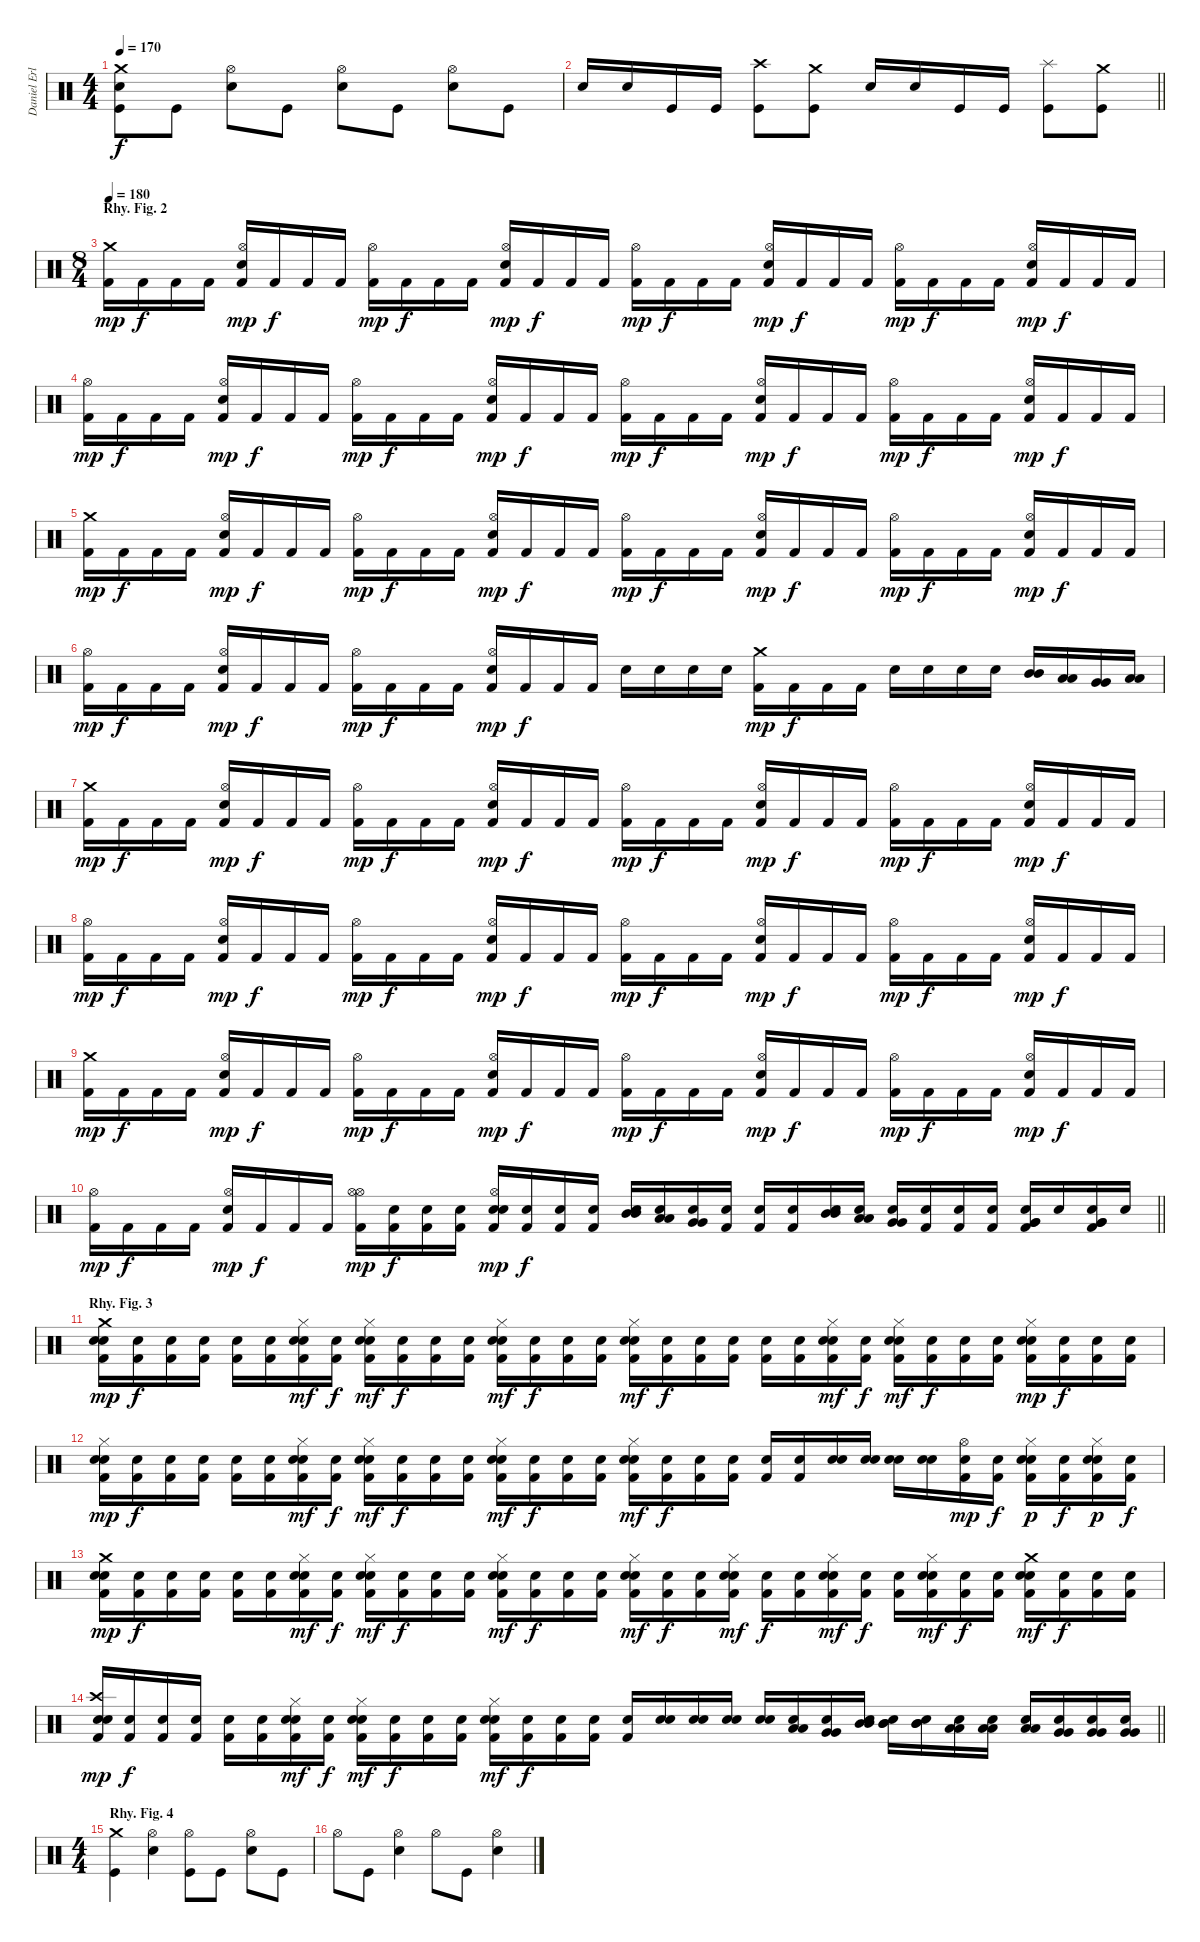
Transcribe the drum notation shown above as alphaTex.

\track ("Daniel Erlandson" "Daniel Erl") {instrument percussion}
\staff {score}
\articulation defaults
\ts (4 4)
\tempo 170
\clef neutral
\ks c
("Crash medium (hit)" "Electric Snare (hit)" "Kick (hit)").8{dy f} "Kick (hit)".8 ("Hi-Hat (open)" "Electric Snare (hit)").8 "Kick (hit)".8 ("Hi-Hat (open)" "Electric Snare (hit)").8 "Kick (hit)".8 ("Hi-Hat (open)" "Electric Snare (hit)").8 "Kick (hit)".8 |
\barLineRight lightlight "Electric Snare (hit)".16 "Electric Snare (hit)".16 "Kick (hit)".16 "Kick (hit)".16
("Crash high (hit)" "Kick (hit)").8 ("Crash medium (hit)" "Kick (hit)").8 "Electric Snare (hit)".16 "Electric Snare (hit)".16 "Kick (hit)".16 "Kick (hit)".16 ("Splash (hit)" "Kick (hit)").8 ("Crash medium (hit)" "Kick (hit)").8 |
\ts (8 4)
\section ("" "Rhy. Fig. 2")
\tempo 180
("Crash medium (hit)" "Kick (hit) 2").16{dy mp} "Kick (hit) 2".16{dy f} "Kick (hit) 2".16 "Kick (hit) 2".16 ("Hi-Hat (open)" "Electric Snare (hit)" "Kick (hit) 2").16{dy mp} "Kick (hit) 2".16{dy f} "Kick (hit) 2".16 "Kick (hit) 2".16 ("Hi-Hat (open)" "Kick (hit) 2").16{dy mp} "Kick (hit) 2".16{dy f} "Kick (hit) 2".16 "Kick (hit) 2".16 ("Hi-Hat (open)" "Electric Snare (hit)" "Kick (hit) 2").16{dy mp} "Kick (hit) 2".16{dy f} "Kick (hit) 2".16 "Kick (hit) 2".16 ("Hi-Hat (open)" "Kick (hit) 2").16{dy mp} "Kick (hit) 2".16{dy f} "Kick (hit) 2".16 "Kick (hit) 2".16 ("Hi-Hat (open)" "Electric Snare (hit)" "Kick (hit) 2").16{dy mp} "Kick (hit) 2".16{dy f} "Kick (hit) 2".16 "Kick (hit) 2".16 ("Hi-Hat (open)" "Kick (hit) 2").16{dy mp} "Kick (hit) 2".16{dy f} "Kick (hit) 2".16 "Kick (hit) 2".16 ("Hi-Hat (open)" "Electric Snare (hit)" "Kick (hit) 2").16{dy mp} "Kick (hit) 2".16{dy f} "Kick (hit) 2".16 "Kick (hit) 2".16 |
("Hi-Hat (open)" "Kick (hit) 2").16{dy mp} "Kick (hit) 2".16{dy f} "Kick (hit) 2".16 "Kick (hit) 2".16 ("Hi-Hat (open)" "Electric Snare (hit)" "Kick (hit) 2").16{dy mp} "Kick (hit) 2".16{dy f} "Kick (hit) 2".16 "Kick (hit) 2".16 ("Hi-Hat (open)" "Kick (hit) 2").16{dy mp} "Kick (hit) 2".16{dy f} "Kick (hit) 2".16 "Kick (hit) 2".16 ("Hi-Hat (open)" "Electric Snare (hit)" "Kick (hit) 2").16{dy mp} "Kick (hit) 2".16{dy f} "Kick (hit) 2".16 "Kick (hit) 2".16 ("Hi-Hat (open)" "Kick (hit) 2").16{dy mp} "Kick (hit) 2".16{dy f} "Kick (hit) 2".16 "Kick (hit) 2".16 ("Hi-Hat (open)" "Electric Snare (hit)" "Kick (hit) 2").16{dy mp} "Kick (hit) 2".16{dy f} "Kick (hit) 2".16 "Kick (hit) 2".16 ("Hi-Hat (open)" "Kick (hit) 2").16{dy mp} "Kick (hit) 2".16{dy f} "Kick (hit) 2".16 "Kick (hit) 2".16 ("Hi-Hat (open)" "Electric Snare (hit)" "Kick (hit) 2").16{dy mp} "Kick (hit) 2".16{dy f} "Kick (hit) 2".16 "Kick (hit) 2".16 |
("Crash medium (hit)" "Kick (hit) 2").16{dy mp} "Kick (hit) 2".16{dy f} "Kick (hit) 2".16 "Kick (hit) 2".16 ("Hi-Hat (open)" "Electric Snare (hit)" "Kick (hit) 2").16{dy mp} "Kick (hit) 2".16{dy f} "Kick (hit) 2".16 "Kick (hit) 2".16 ("Hi-Hat (open)" "Kick (hit) 2").16{dy mp} "Kick (hit) 2".16{dy f} "Kick (hit) 2".16 "Kick (hit) 2".16 ("Hi-Hat (open)" "Electric Snare (hit)" "Kick (hit) 2").16{dy mp} "Kick (hit) 2".16{dy f} "Kick (hit) 2".16 "Kick (hit) 2".16 ("Hi-Hat (open)" "Kick (hit) 2").16{dy mp} "Kick (hit) 2".16{dy f} "Kick (hit) 2".16 "Kick (hit) 2".16 ("Hi-Hat (open)" "Electric Snare (hit)" "Kick (hit) 2").16{dy mp} "Kick (hit) 2".16{dy f} "Kick (hit) 2".16 "Kick (hit) 2".16 ("Hi-Hat (open)" "Kick (hit) 2").16{dy mp} "Kick (hit) 2".16{dy f} "Kick (hit) 2".16 "Kick (hit) 2".16 ("Hi-Hat (open)" "Electric Snare (hit)" "Kick (hit) 2").16{dy mp} "Kick (hit) 2".16{dy f} "Kick (hit) 2".16 "Kick (hit) 2".16 |
("Hi-Hat (open)" "Kick (hit) 2").16{dy mp} "Kick (hit) 2".16{dy f} "Kick (hit) 2".16 "Kick (hit) 2".16 ("Hi-Hat (open)" "Electric Snare (hit)" "Kick (hit) 2").16{dy mp} "Kick (hit) 2".16{dy f} "Kick (hit) 2".16 "Kick (hit) 2".16 ("Hi-Hat (open)" "Kick (hit) 2").16{dy mp} "Kick (hit) 2".16{dy f} "Kick (hit) 2".16 "Kick (hit) 2".16 ("Hi-Hat (open)" "Electric Snare (hit)" "Kick (hit) 2").16{dy mp} "Kick (hit) 2".16{dy f} "Kick (hit) 2".16 "Kick (hit) 2".16 "Electric Snare (hit)".16 "Electric Snare (hit)".16 "Electric Snare (hit)".16 "Electric Snare (hit)".16 ("Crash medium (hit)" "Kick (hit) 2").16{dy mp} "Kick (hit) 2".16{dy f} "Kick (hit) 2".16 "Kick (hit) 2".16 "Electric Snare (hit)".16 "Electric Snare (hit)".16 "Electric Snare (hit)".16 "Electric Snare (hit)".16 ("Mid Tom (hit)" "Mid Tom (hit)").16 ("Low Tom (hit)" "Low Tom (hit)").16 ("Very Low Tom (hit)" "Very Low Tom (hit)").16 ("Low Floor Tom (hit)" "Low Floor Tom (hit)").16 |
("Crash medium (hit)" "Kick (hit) 2").16{dy mp} "Kick (hit) 2".16{dy f} "Kick (hit) 2".16 "Kick (hit) 2".16 ("Hi-Hat (open)" "Electric Snare (hit)" "Kick (hit) 2").16{dy mp} "Kick (hit) 2".16{dy f} "Kick (hit) 2".16 "Kick (hit) 2".16 ("Hi-Hat (open)" "Kick (hit) 2").16{dy mp} "Kick (hit) 2".16{dy f} "Kick (hit) 2".16 "Kick (hit) 2".16 ("Hi-Hat (open)" "Electric Snare (hit)" "Kick (hit) 2").16{dy mp} "Kick (hit) 2".16{dy f} "Kick (hit) 2".16 "Kick (hit) 2".16 ("Hi-Hat (open)" "Kick (hit) 2").16{dy mp} "Kick (hit) 2".16{dy f} "Kick (hit) 2".16 "Kick (hit) 2".16 ("Hi-Hat (open)" "Electric Snare (hit)" "Kick (hit) 2").16{dy mp} "Kick (hit) 2".16{dy f} "Kick (hit) 2".16 "Kick (hit) 2".16 ("Hi-Hat (open)" "Kick (hit) 2").16{dy mp} "Kick (hit) 2".16{dy f} "Kick (hit) 2".16 "Kick (hit) 2".16 ("Hi-Hat (open)" "Electric Snare (hit)" "Kick (hit) 2").16{dy mp} "Kick (hit) 2".16{dy f} "Kick (hit) 2".16 "Kick (hit) 2".16 |
("Hi-Hat (open)" "Kick (hit) 2").16{dy mp} "Kick (hit) 2".16{dy f} "Kick (hit) 2".16 "Kick (hit) 2".16 ("Hi-Hat (open)" "Electric Snare (hit)" "Kick (hit) 2").16{dy mp} "Kick (hit) 2".16{dy f} "Kick (hit) 2".16 "Kick (hit) 2".16 ("Hi-Hat (open)" "Kick (hit) 2").16{dy mp} "Kick (hit) 2".16{dy f} "Kick (hit) 2".16 "Kick (hit) 2".16 ("Hi-Hat (open)" "Electric Snare (hit)" "Kick (hit) 2").16{dy mp} "Kick (hit) 2".16{dy f} "Kick (hit) 2".16 "Kick (hit) 2".16 ("Hi-Hat (open)" "Kick (hit) 2").16{dy mp} "Kick (hit) 2".16{dy f} "Kick (hit) 2".16 "Kick (hit) 2".16 ("Hi-Hat (open)" "Electric Snare (hit)" "Kick (hit) 2").16{dy mp} "Kick (hit) 2".16{dy f} "Kick (hit) 2".16 "Kick (hit) 2".16 ("Hi-Hat (open)" "Kick (hit) 2").16{dy mp} "Kick (hit) 2".16{dy f} "Kick (hit) 2".16 "Kick (hit) 2".16 ("Hi-Hat (open)" "Electric Snare (hit)" "Kick (hit) 2").16{dy mp} "Kick (hit) 2".16{dy f} "Kick (hit) 2".16 "Kick (hit) 2".16 |
("Crash medium (hit)" "Kick (hit) 2").16{dy mp} "Kick (hit) 2".16{dy f} "Kick (hit) 2".16 "Kick (hit) 2".16 ("Hi-Hat (open)" "Electric Snare (hit)" "Kick (hit) 2").16{dy mp} "Kick (hit) 2".16{dy f} "Kick (hit) 2".16 "Kick (hit) 2".16 ("Hi-Hat (open)" "Kick (hit) 2").16{dy mp} "Kick (hit) 2".16{dy f} "Kick (hit) 2".16 "Kick (hit) 2".16 ("Hi-Hat (open)" "Electric Snare (hit)" "Kick (hit) 2").16{dy mp} "Kick (hit) 2".16{dy f} "Kick (hit) 2".16 "Kick (hit) 2".16 ("Hi-Hat (open)" "Kick (hit) 2").16{dy mp} "Kick (hit) 2".16{dy f} "Kick (hit) 2".16 "Kick (hit) 2".16 ("Hi-Hat (open)" "Electric Snare (hit)" "Kick (hit) 2").16{dy mp} "Kick (hit) 2".16{dy f} "Kick (hit) 2".16 "Kick (hit) 2".16 ("Hi-Hat (open)" "Kick (hit) 2").16{dy mp} "Kick (hit) 2".16{dy f} "Kick (hit) 2".16 "Kick (hit) 2".16 ("Hi-Hat (open)" "Electric Snare (hit)" "Kick (hit) 2").16{dy mp} "Kick (hit) 2".16{dy f} "Kick (hit) 2".16 "Kick (hit) 2".16 |
\barLineRight lightlight
("Hi-Hat (open)" "Kick (hit) 2").16{dy mp} "Kick (hit) 2".16{dy f} "Kick (hit) 2".16 "Kick (hit) 2".16 ("Hi-Hat (open)" "Electric Snare (hit)" "Kick (hit) 2").16{dy mp} "Kick (hit) 2".16{dy f} "Kick (hit) 2".16 "Kick (hit) 2".16 ("Hi-Hat (open)"{x} "Hi-Hat (open)" "Kick (hit) 2").16{dy mp} ("Snare (hit)"{x} "Kick (hit) 2").16{dy f} ("Snare (hit)"{x} "Kick (hit) 2").16 ("Snare (hit)"{x} "Kick (hit) 2").16 ("Snare (hit)"{x} "Hi-Hat (open)" "Electric Snare (hit)" "Kick (hit) 2").16{dy mp} ("Snare (hit)"{x} "Kick (hit) 2").16{dy f} ("Snare (hit)"{x} "Kick (hit) 2").16 ("Snare (hit)"{x} "Kick (hit) 2").16 ("Snare (hit)"{x} "Mid Tom (hit)" "Mid Tom (hit)").16 ("Snare (hit)"{x} "Low Tom (hit)" "Low Tom (hit)").16 ("Snare (hit)"{x} "Very Low Tom (hit)" "Very Low Tom (hit)").16 ("Snare (hit)"{x} "Kick (hit) 2").16 ("Snare (hit)"{x} "Kick (hit) 2").16 ("Snare (hit)"{x} "Kick (hit) 2").16 ("Snare (hit)"{x} "Mid Tom (hit)" "Mid Tom (hit)").16 ("Snare (hit)"{x} "Low Tom (hit)" "Low Tom (hit)").16 ("Snare (hit)"{x} "Very Low Tom (hit)" "Very Low Tom (hit)").16 ("Snare (hit)"{x} "Kick (hit) 2").16 ("Snare (hit)"{x} "Kick (hit) 2").16 ("Snare (hit)"{x} "Kick (hit) 2").16 ("Snare (hit)"{x} "Very Low Tom (hit)" "Very Low Tom (hit)" "Kick (hit) 2").16 "Snare (hit)"{x}.16 ("Snare (hit)"{x} "Very Low Tom (hit)" "Very Low Tom (hit)" "Kick (hit) 2").16 "Snare (hit)"{x}.16 |
\section ("" "Rhy. Fig. 3")
("Snare (hit)"{x} "Crash medium (hit)" "Electric Snare (hit)" "Kick (hit) 2").16{dy mp} ("Snare (hit)"{x} "Kick (hit) 2").16{dy f} ("Snare (hit)"{x} "Kick (hit) 2").16 ("Snare (hit)"{x} "Kick (hit) 2").16 ("Snare (hit)"{x} "Kick (hit) 2").16 ("Snare (hit)"{x} "Kick (hit) 2").16 ("Snare (hit)"{x} "Hi-Hat (closed)" "Electric Snare (hit)" "Kick (hit) 2").16{dy mf} ("Snare (hit)"{x} "Kick (hit) 2").16{dy f} ("Snare (hit)"{x} "Hi-Hat (closed)" "Electric Snare (hit)" "Kick (hit) 2").16{dy mf} ("Snare (hit)"{x} "Kick (hit) 2").16{dy f} ("Snare (hit)"{x} "Kick (hit) 2").16 ("Snare (hit)"{x} "Kick (hit) 2").16 ("Snare (hit)"{x} "Hi-Hat (closed)" "Electric Snare (hit)" "Kick (hit) 2").16{dy mf} ("Snare (hit)"{x} "Kick (hit) 2").16{dy f} ("Snare (hit)"{x} "Kick (hit) 2").16 ("Snare (hit)"{x} "Kick (hit) 2").16 ("Snare (hit)"{x} "Hi-Hat (closed)" "Electric Snare (hit)" "Kick (hit) 2").16{dy mf} ("Snare (hit)"{x} "Kick (hit) 2").16{dy f} ("Snare (hit)"{x} "Kick (hit) 2").16 ("Snare (hit)"{x} "Kick (hit) 2").16 ("Snare (hit)"{x} "Kick (hit) 2").16 ("Snare (hit)"{x} "Kick (hit) 2").16 ("Snare (hit)"{x} "Hi-Hat (closed)" "Electric Snare (hit)" "Kick (hit) 2").16{dy mf} ("Snare (hit)"{x} "Kick (hit) 2").16{dy f} ("Snare (hit)"{x} "Hi-Hat (closed)" "Electric Snare (hit)" "Kick (hit) 2").16{dy mf} ("Snare (hit)"{x} "Kick (hit) 2").16{dy f} ("Snare (hit)"{x} "Kick (hit) 2").16 ("Snare (hit)"{x} "Kick (hit) 2").16 ("Snare (hit)"{x} "Hi-Hat (closed)" "Electric Snare (hit)" "Kick (hit) 2").16{dy mp} ("Snare (hit)"{x} "Kick (hit) 2").16{dy f} ("Snare (hit)"{x} "Kick (hit) 2").16 ("Snare (hit)"{x} "Kick (hit) 2").16 |
("Snare (hit)"{x} "Hi-Hat (closed)" "Electric Snare (hit)" "Kick (hit) 2").16{dy mp} ("Snare (hit)"{x} "Kick (hit) 2").16{dy f} ("Snare (hit)"{x} "Kick (hit) 2").16 ("Snare (hit)"{x} "Kick (hit) 2").16 ("Snare (hit)"{x} "Kick (hit) 2").16 ("Snare (hit)"{x} "Kick (hit) 2").16 ("Snare (hit)"{x} "Hi-Hat (closed)" "Electric Snare (hit)" "Kick (hit) 2").16{dy mf} ("Snare (hit)"{x} "Kick (hit) 2").16{dy f} ("Snare (hit)"{x} "Hi-Hat (closed)" "Electric Snare (hit)" "Kick (hit) 2").16{dy mf} ("Snare (hit)"{x} "Kick (hit) 2").16{dy f} ("Snare (hit)"{x} "Kick (hit) 2").16 ("Snare (hit)"{x} "Kick (hit) 2").16 ("Snare (hit)"{x} "Hi-Hat (closed)" "Electric Snare (hit)" "Kick (hit) 2").16{dy mf} ("Snare (hit)"{x} "Kick (hit) 2").16{dy f} ("Snare (hit)"{x} "Kick (hit) 2").16 ("Snare (hit)"{x} "Kick (hit) 2").16 ("Snare (hit)"{x} "Hi-Hat (closed)" "Electric Snare (hit)" "Kick (hit) 2").16{dy mf} ("Snare (hit)"{x} "Kick (hit) 2").16{dy f} ("Snare (hit)"{x} "Kick (hit) 2").16 ("Snare (hit)"{x} "Kick (hit) 2").16 ("Snare (hit)"{x} "Kick (hit) 2").16 ("Snare (hit)"{x} "Kick (hit) 2").16 ("Snare (hit)"{x} "Electric Snare (hit)").16 ("Snare (hit)"{x} "Electric Snare (hit)").16 ("Snare (hit)"{x} "Electric Snare (hit)").16 ("Snare (hit)"{x} "Electric Snare (hit)").16 ("Snare (hit)"{x} "Hi-Hat (open)" "Kick (hit) 2").16{dy mp} ("Snare (hit)"{x} "Kick (hit) 2").16{dy f} ("Snare (hit)"{x} "Hi-Hat (closed)" "Electric Snare (hit)" "Kick (hit) 2").16{dy p} ("Snare (hit)"{x} "Kick (hit) 2").16{dy f} ("Snare (hit)"{x} "Hi-Hat (closed)" "Electric Snare (hit)" "Kick (hit) 2").16{dy p} ("Snare (hit)"{x} "Kick (hit) 2").16{dy f} |
("Snare (hit)"{x} "Crash medium (hit)" "Electric Snare (hit)" "Kick (hit) 2").16{dy mp} ("Snare (hit)"{x} "Kick (hit) 2").16{dy f} ("Snare (hit)"{x} "Kick (hit) 2").16 ("Snare (hit)"{x} "Kick (hit) 2").16 ("Snare (hit)"{x} "Kick (hit) 2").16 ("Snare (hit)"{x} "Kick (hit) 2").16 ("Snare (hit)"{x} "Hi-Hat (closed)" "Electric Snare (hit)" "Kick (hit) 2").16{dy mf} ("Snare (hit)"{x} "Kick (hit) 2").16{dy f} ("Snare (hit)"{x} "Hi-Hat (closed)" "Electric Snare (hit)" "Kick (hit) 2").16{dy mf} ("Snare (hit)"{x} "Kick (hit) 2").16{dy f} ("Snare (hit)"{x} "Kick (hit) 2").16 ("Snare (hit)"{x} "Kick (hit) 2").16 ("Snare (hit)"{x} "Hi-Hat (closed)" "Electric Snare (hit)" "Kick (hit) 2").16{dy mf} ("Snare (hit)"{x} "Kick (hit) 2").16{dy f} ("Snare (hit)"{x} "Kick (hit) 2").16 ("Snare (hit)"{x} "Kick (hit) 2").16 ("Snare (hit)"{x} "Hi-Hat (closed)" "Electric Snare (hit)" "Kick (hit) 2").16{dy mf} ("Snare (hit)"{x} "Kick (hit) 2").16{dy f} ("Snare (hit)"{x} "Kick (hit) 2").16 ("Snare (hit)"{x} "Hi-Hat (closed)" "Electric Snare (hit)" "Kick (hit) 2").16{dy mf} ("Snare (hit)"{x} "Kick (hit) 2").16{dy f} ("Snare (hit)"{x} "Kick (hit) 2").16 ("Snare (hit)"{x} "Hi-Hat (closed)" "Electric Snare (hit)" "Kick (hit) 2").16{dy mf} ("Snare (hit)"{x} "Kick (hit) 2").16{dy f} ("Snare (hit)"{x} "Kick (hit) 2").16 ("Snare (hit)"{x} "Hi-Hat (closed)" "Electric Snare (hit)" "Kick (hit) 2").16{dy mf} ("Snare (hit)"{x} "Kick (hit) 2").16{dy f} ("Snare (hit)"{x} "Kick (hit) 2").16 ("Snare (hit)"{x} "Crash medium (hit)" "Electric Snare (hit)" "Kick (hit) 2").16{dy mf} ("Snare (hit)"{x} "Kick (hit) 2").16{dy f} ("Snare (hit)"{x} "Kick (hit) 2").16 ("Snare (hit)"{x} "Kick (hit) 2").16 |
\barLineRight lightlight
("Snare (hit)"{x} "Crash high (hit)" "Electric Snare (hit)" "Kick (hit) 2").16{dy mp} ("Snare (hit)"{x} "Kick (hit) 2").16{dy f} ("Snare (hit)"{x} "Kick (hit) 2").16 ("Snare (hit)"{x} "Kick (hit) 2").16 ("Snare (hit)"{x} "Kick (hit) 2").16 ("Snare (hit)"{x} "Kick (hit) 2").16 ("Snare (hit)"{x} "Hi-Hat (closed)" "Electric Snare (hit)" "Kick (hit) 2").16{dy mf} ("Snare (hit)"{x} "Kick (hit) 2").16{dy f} ("Snare (hit)"{x} "Hi-Hat (closed)" "Electric Snare (hit)" "Kick (hit) 2").16{dy mf} ("Snare (hit)"{x} "Kick (hit) 2").16{dy f} ("Snare (hit)"{x} "Kick (hit) 2").16 ("Snare (hit)"{x} "Kick (hit) 2").16 ("Snare (hit)"{x} "Hi-Hat (closed)" "Electric Snare (hit)" "Kick (hit) 2").16{dy mf} ("Snare (hit)"{x} "Kick (hit) 2").16{dy f} ("Snare (hit)"{x} "Kick (hit) 2").16 ("Snare (hit)"{x} "Kick (hit) 2").16 ("Snare (hit)"{x} "Kick (hit) 2").16 ("Snare (hit)"{x} "Electric Snare (hit)").16 ("Snare (hit)"{x} "Electric Snare (hit)").16 ("Snare (hit)"{x} "Electric Snare (hit)").16 ("Snare (hit)"{x} "Electric Snare (hit)").16 ("Snare (hit)"{x} "Low Tom (hit)" "Low Tom (hit)").16 ("Snare (hit)"{x} "Very Low Tom (hit)" "Very Low Tom (hit)").16 ("Snare (hit)"{x} "Mid Tom (hit)" "Mid Tom (hit)").16 ("Snare (hit)"{x} "Mid Tom (hit)" "Mid Tom (hit)").16 ("Snare (hit)"{x} "Mid Tom (hit)" "Mid Tom (hit)").16 ("Snare (hit)"{x} "Low Tom (hit)" "Low Tom (hit)").16 ("Snare (hit)"{x} "Low Tom (hit)" "Low Tom (hit)").16 ("Snare (hit)"{x} "Low Tom (hit)" "Low Tom (hit)").16 ("Snare (hit)"{x} "Very Low Tom (hit)" "Very Low Tom (hit)").16 ("Snare (hit)"{x} "Very Low Tom (hit)" "Very Low Tom (hit)").16 ("Snare (hit)"{x} "Very Low Tom (hit)" "Very Low Tom (hit)").16 |
\ts (4 4)
\section ("" "Rhy. Fig. 4")
("Crash medium (hit)" "Kick (hit)").4 ("Hi-Hat (open)" "Electric Snare (hit)").4 ("Hi-Hat (open)" "Kick (hit)").8 "Kick (hit)".8 ("Hi-Hat (open)" "Electric Snare (hit)").8 "Kick (hit)".8 |
"Hi-Hat (open)".8 "Kick (hit)".8 ("Hi-Hat (open)" "Electric Snare (hit)").4 "Hi-Hat (open)".8 "Kick (hit)".8 ("Hi-Hat (open)" "Electric Snare (hit)").4
